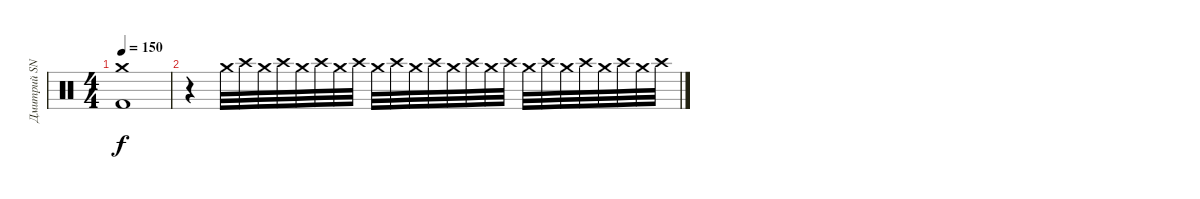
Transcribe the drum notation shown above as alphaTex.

\track ("Дмитрий SNAKE Хакимов" "Дмитрий SN") {instrument percussion}
\staff {score}
\articulation defaults
\ts (4 4)
\tempo 150
\clef neutral
\ks c
("Crash medium (hit)" "Kick (hit) 2").1{dy f} |
r.4 "Crash medium (hit)".32 "Crash high (hit)".32 "Crash medium (hit)".32 "Crash high (hit)".32 "Crash medium (hit)".32 "Crash high (hit)".32 "Crash medium (hit)".32 "Crash high (hit)".32 "Crash medium (hit)".32 "Crash high (hit)".32 "Crash medium (hit)".32 "Crash high (hit)".32 "Crash medium (hit)".32 "Crash high (hit)".32 "Crash medium (hit)".32 "Crash high (hit)".32 "Crash medium (hit)".32 "Crash high (hit)".32 "Crash medium (hit)".32 "Crash high (hit)".32 "Crash medium (hit)".32 "Crash high (hit)".32 "Crash medium (hit)".32 "Crash high (hit)".32
